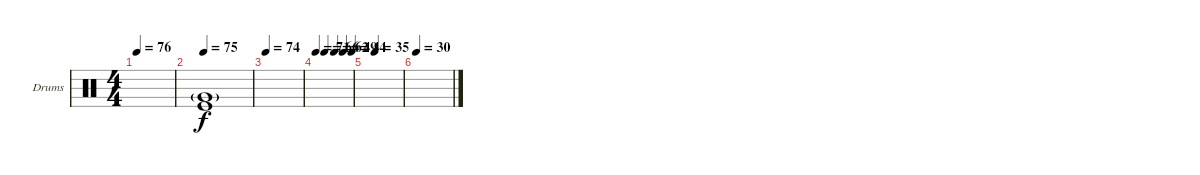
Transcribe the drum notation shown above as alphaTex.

\defaultSystemsLayout 4
\bracketExtendMode groupsimilarinstruments
\firstSystemTrackNameOrientation horizontal
\otherSystemsTrackNameOrientation horizontal
\track ("Drumkit" "Drums") {instrument percussion}
\staff {score}
\articulation defaults
\ts (4 4)
\tempo 76
\clef neutral
\ks aminor
|
\tempo 75
("Kick (hit)" "Very Low Tom (hit)"{g}).1 |
\tempo 74
|
\tempo 71
\tempo (66 0.24375)
\tempo (62 0.5125)
\tempo (49 0.75)
\tempo (44 0.99375)
|
\tempo (35 0.25)
|
\tempo (30 0.0125)
